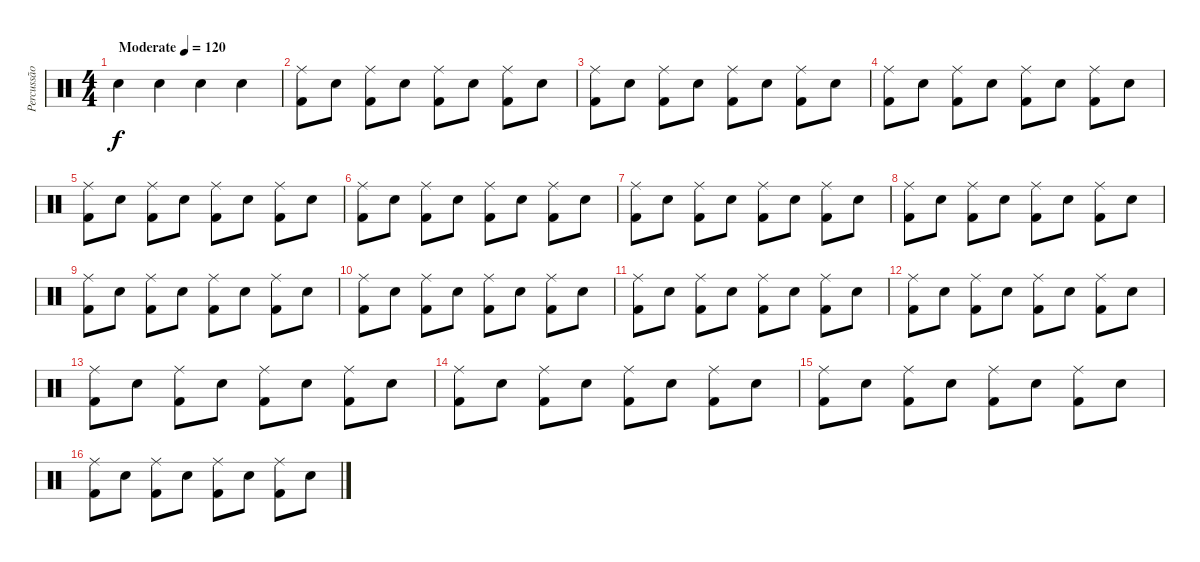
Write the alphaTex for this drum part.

\track ("Percussão" "Percussão") {instrument percussion}
\staff {score}
\articulation defaults
\ts (4 4)
\tempo (120 "Moderate")
\tempo 220
\tempo (120 "Moderate")
\clef neutral
\ks c "Electric Snare (hit)".4{dy f} "Electric Snare (hit)".4 "Electric Snare (hit)".4 "Electric Snare (hit)".4
|
("Ride (middle)" "Kick (hit) 2").8 "Snare (hit) 2".8 ("Ride (middle)" "Kick (hit) 2").8 "Snare (hit) 2".8 ("Ride (middle)" "Kick (hit) 2").8 "Snare (hit) 2".8 ("Ride (middle)" "Kick (hit) 2").8 "Snare (hit) 2".8 |
("Ride (middle)" "Kick (hit) 2").8 "Snare (hit) 2".8 ("Ride (middle)" "Kick (hit) 2").8 "Snare (hit) 2".8 ("Ride (middle)" "Kick (hit) 2").8 "Snare (hit) 2".8 ("Ride (middle)" "Kick (hit) 2").8 "Snare (hit) 2".8 |
("Ride (middle)" "Kick (hit) 2").8 "Snare (hit) 2".8 ("Ride (middle)" "Kick (hit) 2").8 "Snare (hit) 2".8 ("Ride (middle)" "Kick (hit) 2").8 "Snare (hit) 2".8 ("Ride (middle)" "Kick (hit) 2").8 "Snare (hit) 2".8 |
("Ride (middle)" "Kick (hit) 2").8 "Snare (hit) 2".8 ("Ride (middle)" "Kick (hit) 2").8 "Snare (hit) 2".8 ("Ride (middle)" "Kick (hit) 2").8 "Snare (hit) 2".8 ("Ride (middle)" "Kick (hit) 2").8 "Snare (hit) 2".8 |
("Ride (middle)" "Kick (hit) 2").8 "Snare (hit) 2".8 ("Ride (middle)" "Kick (hit) 2").8 "Snare (hit) 2".8 ("Ride (middle)" "Kick (hit) 2").8 "Snare (hit) 2".8 ("Ride (middle)" "Kick (hit) 2").8 "Snare (hit) 2".8 |
("Ride (middle)" "Kick (hit) 2").8 "Snare (hit) 2".8 ("Ride (middle)" "Kick (hit) 2").8 "Snare (hit) 2".8 ("Ride (middle)" "Kick (hit) 2").8 "Snare (hit) 2".8 ("Ride (middle)" "Kick (hit) 2").8 "Snare (hit) 2".8 |
("Ride (middle)" "Kick (hit) 2").8 "Snare (hit) 2".8 ("Ride (middle)" "Kick (hit) 2").8 "Snare (hit) 2".8 ("Ride (middle)" "Kick (hit) 2").8 "Snare (hit) 2".8 ("Ride (middle)" "Kick (hit) 2").8 "Snare (hit) 2".8 |
("Ride (middle)" "Kick (hit) 2").8 "Snare (hit) 2".8 ("Ride (middle)" "Kick (hit) 2").8 "Snare (hit) 2".8 ("Ride (middle)" "Kick (hit) 2").8 "Snare (hit) 2".8 ("Ride (middle)" "Kick (hit) 2").8 "Snare (hit) 2".8 |
("Ride (middle)" "Kick (hit) 2").8 "Snare (hit) 2".8 ("Ride (middle)" "Kick (hit) 2").8 "Snare (hit) 2".8 ("Ride (middle)" "Kick (hit) 2").8 "Snare (hit) 2".8 ("Ride (middle)" "Kick (hit) 2").8 "Snare (hit) 2".8 |
("Ride (middle)" "Kick (hit) 2").8 "Snare (hit) 2".8 ("Ride (middle)" "Kick (hit) 2").8 "Snare (hit) 2".8 ("Ride (middle)" "Kick (hit) 2").8 "Snare (hit) 2".8 ("Ride (middle)" "Kick (hit) 2").8 "Snare (hit) 2".8 |
("Ride (middle)" "Kick (hit) 2").8 "Snare (hit) 2".8 ("Ride (middle)" "Kick (hit) 2").8 "Snare (hit) 2".8 ("Ride (middle)" "Kick (hit) 2").8 "Snare (hit) 2".8 ("Ride (middle)" "Kick (hit) 2").8 "Snare (hit) 2".8 |
("Ride (middle)" "Kick (hit) 2").8 "Snare (hit) 2".8 ("Ride (middle)" "Kick (hit) 2").8 "Snare (hit) 2".8 ("Ride (middle)" "Kick (hit) 2").8 "Snare (hit) 2".8 ("Ride (middle)" "Kick (hit) 2").8 "Snare (hit) 2".8 |
("Ride (middle)" "Kick (hit) 2").8 "Snare (hit) 2".8 ("Ride (middle)" "Kick (hit) 2").8 "Snare (hit) 2".8 ("Ride (middle)" "Kick (hit) 2").8 "Snare (hit) 2".8 ("Ride (middle)" "Kick (hit) 2").8 "Snare (hit) 2".8 |
("Ride (middle)" "Kick (hit) 2").8 "Snare (hit) 2".8 ("Ride (middle)" "Kick (hit) 2").8 "Snare (hit) 2".8 ("Ride (middle)" "Kick (hit) 2").8 "Snare (hit) 2".8 ("Ride (middle)" "Kick (hit) 2").8 "Snare (hit) 2".8 |
("Ride (middle)" "Kick (hit) 2").8 "Snare (hit) 2".8 ("Ride (middle)" "Kick (hit) 2").8 "Snare (hit) 2".8 ("Ride (middle)" "Kick (hit) 2").8 "Snare (hit) 2".8 ("Ride (middle)" "Kick (hit) 2").8 "Snare (hit) 2".8
